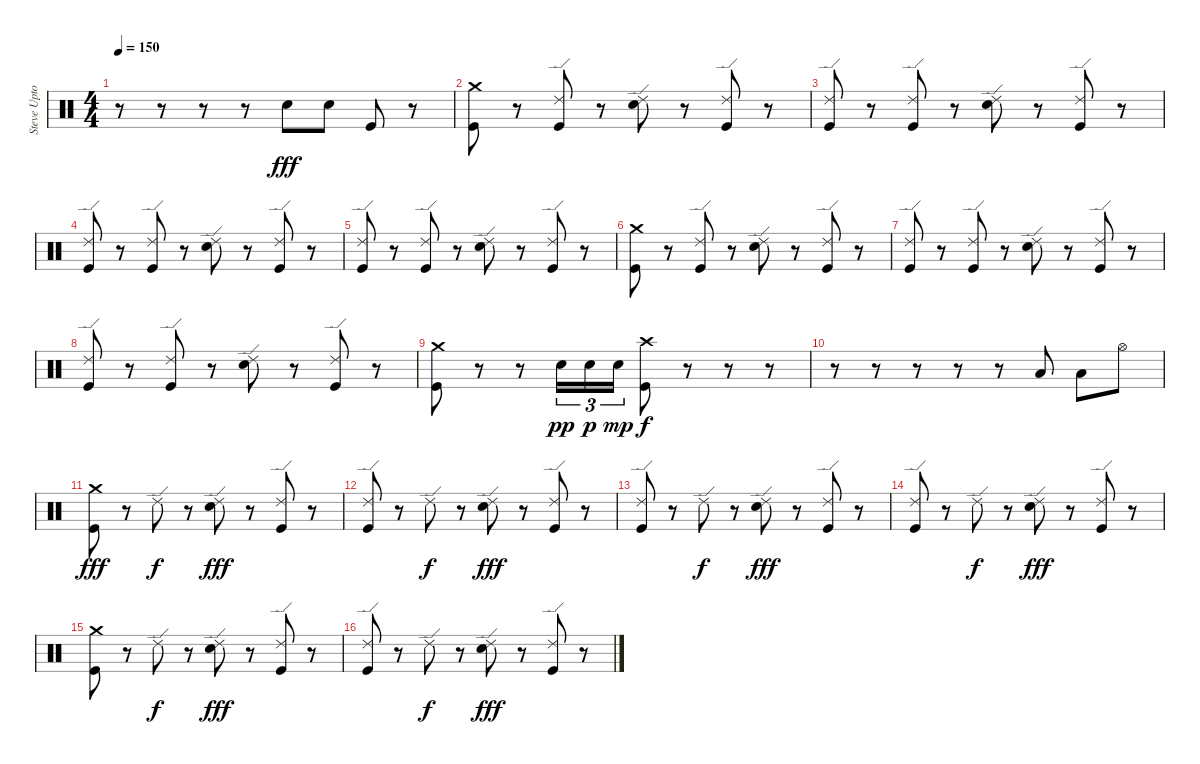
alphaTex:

\track ("Steve Upton (drums)" "Steve Upto") {instrument percussion}
\staff {score}
\articulation defaults
\ts (4 4)
\tempo 150
\clef neutral
\ks c
r.8{dy fff} r.8 r.8 r.8 "Electric Snare (hit)".8 "Electric Snare (hit)".8 "Kick (hit)".8 r.8 |
("Crash medium (hit)" "Kick (hit)").8 r.8 ("Ride (edge) 2" "Kick (hit)").8 r.8 ("Ride (edge) 2" "Electric Snare (hit)").8 r.8 ("Ride (edge) 2" "Kick (hit)").8 r.8 |
("Ride (edge) 2" "Kick (hit)").8 r.8 ("Ride (edge) 2" "Kick (hit)").8 r.8 ("Ride (edge) 2" "Electric Snare (hit)").8 r.8 ("Ride (edge) 2" "Kick (hit)").8 r.8 |
("Ride (edge) 2" "Kick (hit)").8 r.8 ("Ride (edge) 2" "Kick (hit)").8 r.8 ("Ride (edge) 2" "Electric Snare (hit)").8 r.8 ("Ride (edge) 2" "Kick (hit)").8 r.8 |
("Ride (edge) 2" "Kick (hit)").8 r.8 ("Ride (edge) 2" "Kick (hit)").8 r.8 ("Ride (edge) 2" "Electric Snare (hit)").8 r.8 ("Ride (edge) 2" "Kick (hit)").8 r.8 |
("Crash medium (hit)" "Kick (hit)").8 r.8 ("Ride (edge) 2" "Kick (hit)").8 r.8 ("Ride (edge) 2" "Electric Snare (hit)").8 r.8 ("Ride (edge) 2" "Kick (hit)").8 r.8 |
("Ride (edge) 2" "Kick (hit)").8 r.8 ("Ride (edge) 2" "Kick (hit)").8 r.8 ("Ride (edge) 2" "Electric Snare (hit)").8 r.8 ("Ride (edge) 2" "Kick (hit)").8 r.8 |
("Ride (edge) 2" "Kick (hit)").8 r.8 ("Ride (edge) 2" "Kick (hit)").8 r.8 ("Ride (edge) 2" "Electric Snare (hit)").8 r.8 ("Ride (edge) 2" "Kick (hit)").8 r.8 |
("Crash medium (hit)" "Kick (hit)").8 r.8 r.8 "Electric Snare (hit)".16{tu (3 2) dy pp} "Electric Snare (hit)".16{tu (3 2) dy p} "Electric Snare (hit)".16{tu (3 2) dy mp} ("Crash high (hit)" "Kick (hit)").8{dy f} r.8 r.8 r.8 |
r.8 r.8 r.8 r.8 r.8 "Low Tom (hit)".8 "Low Tom (hit)".8 "Hi-Hat (open)".8 |
("Crash medium (hit)" "Kick (hit)").8{dy fff} r.8 "Ride (edge) 2".8{dy f} r.8 ("Ride (edge) 2" "Electric Snare (hit)").8{dy fff} r.8 ("Ride (edge) 2" "Kick (hit)").8 r.8 |
("Ride (edge) 2" "Kick (hit)").8 r.8 "Ride (edge) 2".8{dy f} r.8 ("Ride (edge) 2" "Electric Snare (hit)").8{dy fff} r.8 ("Ride (edge) 2" "Kick (hit)").8 r.8 |
("Ride (edge) 2" "Kick (hit)").8 r.8 "Ride (edge) 2".8{dy f} r.8 ("Ride (edge) 2" "Electric Snare (hit)").8{dy fff} r.8 ("Ride (edge) 2" "Kick (hit)").8 r.8 |
("Ride (edge) 2" "Kick (hit)").8 r.8 "Ride (edge) 2".8{dy f} r.8 ("Ride (edge) 2" "Electric Snare (hit)").8{dy fff} r.8 ("Ride (edge) 2" "Kick (hit)").8 r.8 |
("Crash medium (hit)" "Kick (hit)").8 r.8 "Ride (edge) 2".8{dy f} r.8 ("Ride (edge) 2" "Electric Snare (hit)").8{dy fff} r.8 ("Ride (edge) 2" "Kick (hit)").8 r.8 |
("Ride (edge) 2" "Kick (hit)").8 r.8 "Ride (edge) 2".8{dy f} r.8 ("Ride (edge) 2" "Electric Snare (hit)").8{dy fff} r.8 ("Ride (edge) 2" "Kick (hit)").8 r.8
